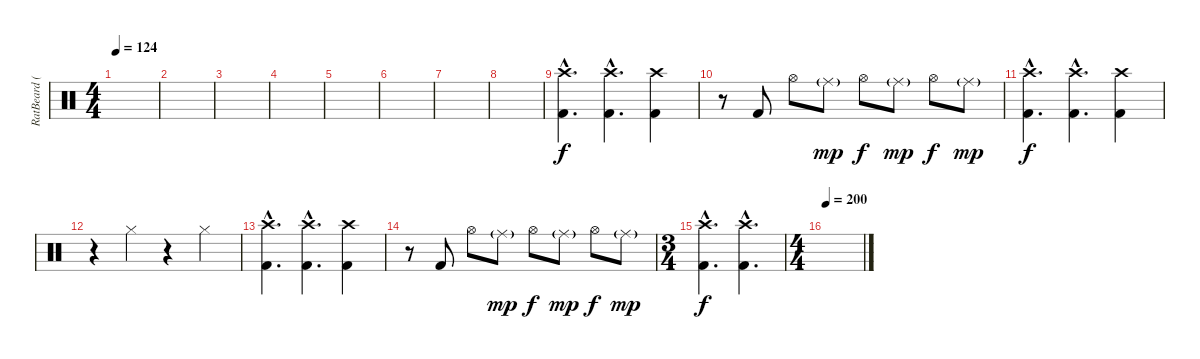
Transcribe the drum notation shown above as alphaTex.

\track ("RatBeard (Drum)" "RatBeard (") {instrument percussion}
\staff {score}
\articulation defaults
\ts (4 4)
\tempo 124
\clef neutral
\ks c
|
|
|
|
|
|
|
|
("Crash high (hit)"{hac} "Kick (hit) 2"{hac}).4{d} ("Crash high (hit)"{hac} "Kick (hit) 2"{hac}).4{d} ("Crash high (hit)" "Kick (hit) 2").4 |
r.8 "Kick (hit) 2".8 "Hi-Hat (open)".8 "Ride (middle)"{g}.8{dy mp} "Hi-Hat (open)".8{dy f} "Ride (middle)"{g}.8{dy mp} "Hi-Hat (open)".8{dy f} "Ride (middle)"{g}.8{dy mp} |
("Crash high (hit)"{hac} "Kick (hit) 2"{hac}).4{d dy f} ("Crash high (hit)"{hac} "Kick (hit) 2"{hac}).4{d} ("Crash high (hit)" "Kick (hit) 2").4 |
r.4 "Hi-Hat (closed)".4 r.4 "Hi-Hat (closed)".4 |
("Crash high (hit)"{hac} "Kick (hit) 2"{hac}).4{d} ("Crash high (hit)"{hac} "Kick (hit) 2"{hac}).4{d} ("Crash high (hit)" "Kick (hit) 2").4 |
r.8 "Kick (hit) 2".8 "Hi-Hat (open)".8 "Ride (middle)"{g}.8{dy mp} "Hi-Hat (open)".8{dy f} "Ride (middle)"{g}.8{dy mp} "Hi-Hat (open)".8{dy f} "Ride (middle)"{g}.8{dy mp} |
\ts (3 4)
("Crash high (hit)"{hac} "Kick (hit) 2"{hac}).4{d dy f} ("Crash high (hit)"{hac} "Kick (hit) 2"{hac}).4{d} |
\ts (4 4)
\tempo 200
